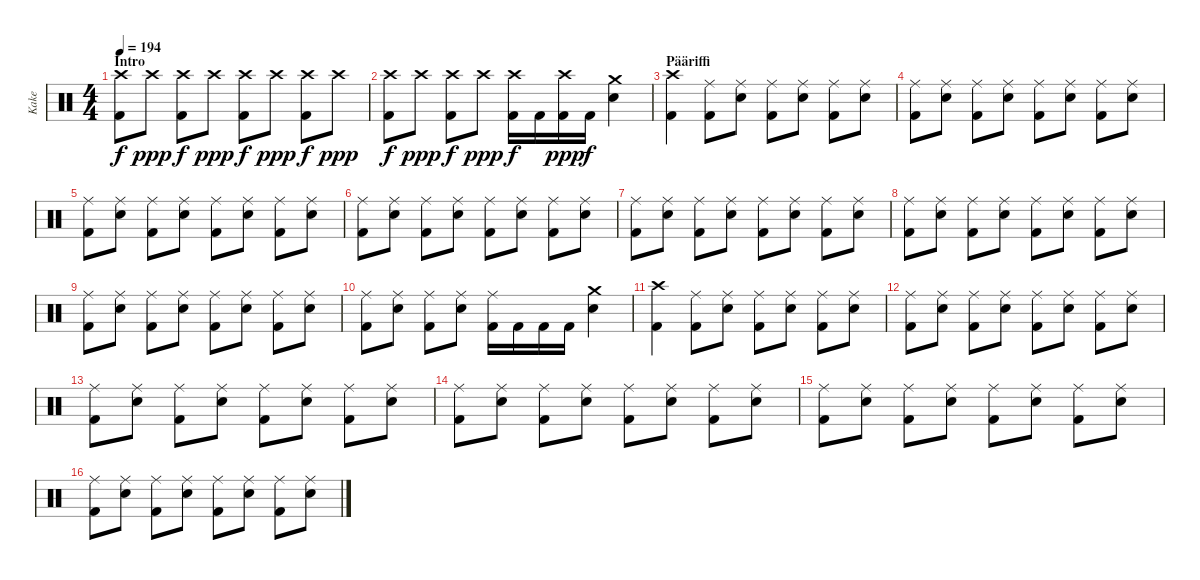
\track ("Kake" "Kake") {instrument percussion}
\staff {score}
\articulation defaults
\ts (4 4)
\section ("" "Intro")
\tempo 194
\clef neutral
\ks c
("Crash high (hit)" "Kick (hit) 2").8{dy f} "Crash high (hit)".8{dy ppp} ("Crash high (hit)" "Kick (hit) 2").8{dy f} "Crash high (hit)".8{dy ppp} ("Crash high (hit)" "Kick (hit) 2").8{dy f} "Crash high (hit)".8{dy ppp} ("Crash high (hit)" "Kick (hit) 2").8{dy f} "Crash high (hit)".8{dy ppp} |
("Crash high (hit)" "Kick (hit) 2").8{dy f} "Crash high (hit)".8{dy ppp} ("Crash high (hit)" "Kick (hit) 2").8{dy f} "Crash high (hit)".8{dy ppp} ("Crash high (hit)" "Kick (hit) 2").16{dy f} "Kick (hit) 2".16 ("Crash high (hit)" "Kick (hit) 2").16{dy ppp} "Kick (hit) 2".16{dy f} ("Crash medium (hit)" "Electric Snare (hit)").4 |
\section ("" "Pääriffi")
("Crash high (hit)" "Kick (hit) 2").4 ("Ride (middle)" "Kick (hit) 2").8 ("Ride (middle)" "Electric Snare (hit)").8 ("Ride (middle)" "Kick (hit) 2").8 ("Ride (middle)" "Electric Snare (hit)").8 ("Ride (middle)" "Kick (hit) 2").8 ("Ride (middle)" "Electric Snare (hit)").8 |
("Ride (middle)" "Kick (hit) 2").8 ("Ride (middle)" "Electric Snare (hit)").8 ("Ride (middle)" "Kick (hit) 2").8 ("Ride (middle)" "Electric Snare (hit)").8 ("Ride (middle)" "Kick (hit) 2").8 ("Ride (middle)" "Electric Snare (hit)").8 ("Ride (middle)" "Kick (hit) 2").8 ("Ride (middle)" "Electric Snare (hit)").8 |
("Ride (middle)" "Kick (hit) 2").8 ("Ride (middle)" "Electric Snare (hit)").8 ("Ride (middle)" "Kick (hit) 2").8 ("Ride (middle)" "Electric Snare (hit)").8 ("Ride (middle)" "Kick (hit) 2").8 ("Ride (middle)" "Electric Snare (hit)").8 ("Ride (middle)" "Kick (hit) 2").8 ("Ride (middle)" "Electric Snare (hit)").8 |
("Ride (middle)" "Kick (hit) 2").8 ("Ride (middle)" "Electric Snare (hit)").8 ("Ride (middle)" "Kick (hit) 2").8 ("Ride (middle)" "Electric Snare (hit)").8 ("Ride (middle)" "Kick (hit) 2").8 ("Ride (middle)" "Electric Snare (hit)").8 ("Ride (middle)" "Kick (hit) 2").8 ("Ride (middle)" "Electric Snare (hit)").8 |
("Ride (middle)" "Kick (hit) 2").8 ("Ride (middle)" "Electric Snare (hit)").8 ("Ride (middle)" "Kick (hit) 2").8 ("Ride (middle)" "Electric Snare (hit)").8 ("Ride (middle)" "Kick (hit) 2").8 ("Ride (middle)" "Electric Snare (hit)").8 ("Ride (middle)" "Kick (hit) 2").8 ("Ride (middle)" "Electric Snare (hit)").8 |
("Ride (middle)" "Kick (hit) 2").8 ("Ride (middle)" "Electric Snare (hit)").8 ("Ride (middle)" "Kick (hit) 2").8 ("Ride (middle)" "Electric Snare (hit)").8 ("Ride (middle)" "Kick (hit) 2").8 ("Ride (middle)" "Electric Snare (hit)").8 ("Ride (middle)" "Kick (hit) 2").8 ("Ride (middle)" "Electric Snare (hit)").8 |
("Ride (middle)" "Kick (hit) 2").8 ("Ride (middle)" "Electric Snare (hit)").8 ("Ride (middle)" "Kick (hit) 2").8 ("Ride (middle)" "Electric Snare (hit)").8 ("Ride (middle)" "Kick (hit) 2").8 ("Ride (middle)" "Electric Snare (hit)").8 ("Ride (middle)" "Kick (hit) 2").8 ("Ride (middle)" "Electric Snare (hit)").8 |
("Ride (middle)" "Kick (hit) 2").8 ("Ride (middle)" "Electric Snare (hit)").8 ("Ride (middle)" "Kick (hit) 2").8 ("Ride (middle)" "Electric Snare (hit)").8 ("Ride (middle)" "Kick (hit) 2").16 "Kick (hit) 2".16 "Kick (hit) 2".16 "Kick (hit) 2".16 ("Crash medium (hit)" "Electric Snare (hit)").4 |
("Crash high (hit)" "Kick (hit) 2").4 ("Ride (middle)" "Kick (hit) 2").8 ("Ride (middle)" "Electric Snare (hit)").8 ("Ride (middle)" "Kick (hit) 2").8 ("Ride (middle)" "Electric Snare (hit)").8 ("Ride (middle)" "Kick (hit) 2").8 ("Ride (middle)" "Electric Snare (hit)").8 |
("Ride (middle)" "Kick (hit) 2").8 ("Ride (middle)" "Electric Snare (hit)").8 ("Ride (middle)" "Kick (hit) 2").8 ("Ride (middle)" "Electric Snare (hit)").8 ("Ride (middle)" "Kick (hit) 2").8 ("Ride (middle)" "Electric Snare (hit)").8 ("Ride (middle)" "Kick (hit) 2").8 ("Ride (middle)" "Electric Snare (hit)").8 |
("Ride (middle)" "Kick (hit) 2").8 ("Ride (middle)" "Electric Snare (hit)").8 ("Ride (middle)" "Kick (hit) 2").8 ("Ride (middle)" "Electric Snare (hit)").8 ("Ride (middle)" "Kick (hit) 2").8 ("Ride (middle)" "Electric Snare (hit)").8 ("Ride (middle)" "Kick (hit) 2").8 ("Ride (middle)" "Electric Snare (hit)").8 |
("Ride (middle)" "Kick (hit) 2").8 ("Ride (middle)" "Electric Snare (hit)").8 ("Ride (middle)" "Kick (hit) 2").8 ("Ride (middle)" "Electric Snare (hit)").8 ("Ride (middle)" "Kick (hit) 2").8 ("Ride (middle)" "Electric Snare (hit)").8 ("Ride (middle)" "Kick (hit) 2").8 ("Ride (middle)" "Electric Snare (hit)").8 |
("Ride (middle)" "Kick (hit) 2").8 ("Ride (middle)" "Electric Snare (hit)").8 ("Ride (middle)" "Kick (hit) 2").8 ("Ride (middle)" "Electric Snare (hit)").8 ("Ride (middle)" "Kick (hit) 2").8 ("Ride (middle)" "Electric Snare (hit)").8 ("Ride (middle)" "Kick (hit) 2").8 ("Ride (middle)" "Electric Snare (hit)").8 |
("Ride (middle)" "Kick (hit) 2").8 ("Ride (middle)" "Electric Snare (hit)").8 ("Ride (middle)" "Kick (hit) 2").8 ("Ride (middle)" "Electric Snare (hit)").8 ("Ride (middle)" "Kick (hit) 2").8 ("Ride (middle)" "Electric Snare (hit)").8 ("Ride (middle)" "Kick (hit) 2").8 ("Ride (middle)" "Electric Snare (hit)").8
